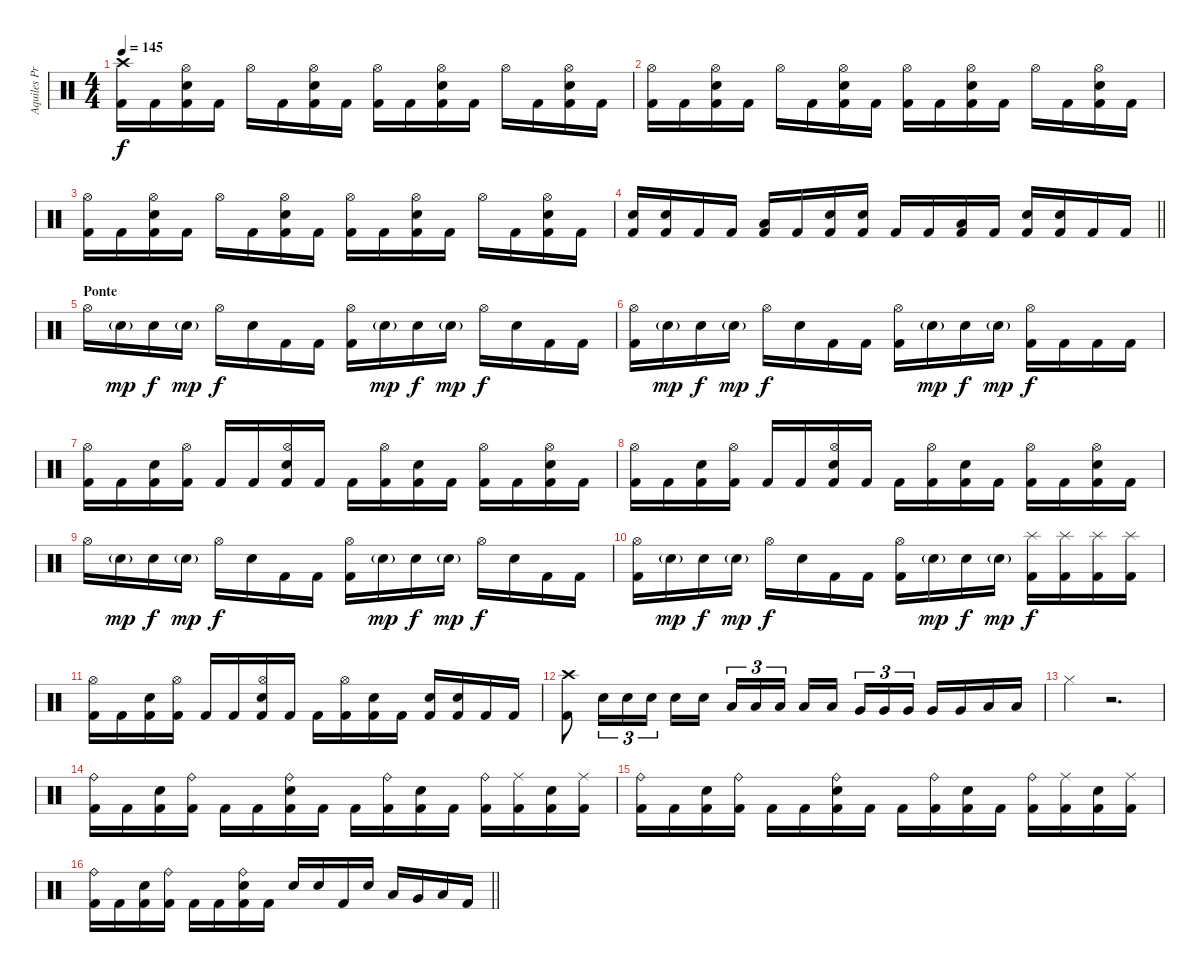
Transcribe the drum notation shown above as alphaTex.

\track ("Aquiles Priester" "Aquiles Pr") {instrument percussion}
\staff {score}
\articulation defaults
\ts (4 4)
\tempo 145
\clef neutral
\ks c
("Crash high (hit)" "Kick (hit) 2").16{dy f} "Kick (hit) 2".16 ("Hi-Hat (open)" "Electric Snare (hit)" "Kick (hit) 2").16 "Kick (hit) 2".16 "Hi-Hat (open)".16 "Kick (hit) 2".16 ("Hi-Hat (open)" "Electric Snare (hit)" "Kick (hit) 2").16 "Kick (hit) 2".16 ("Hi-Hat (open)" "Kick (hit) 2").16 "Kick (hit) 2".16 ("Hi-Hat (open)" "Electric Snare (hit)" "Kick (hit) 2").16 "Kick (hit) 2".16 "Hi-Hat (open)".16 "Kick (hit) 2".16 ("Hi-Hat (open)" "Electric Snare (hit)" "Kick (hit) 2").16 "Kick (hit) 2".16 |
("Hi-Hat (open)" "Kick (hit) 2").16 "Kick (hit) 2".16 ("Hi-Hat (open)" "Electric Snare (hit)" "Kick (hit) 2").16 "Kick (hit) 2".16 "Hi-Hat (open)".16 "Kick (hit) 2".16 ("Hi-Hat (open)" "Electric Snare (hit)" "Kick (hit) 2").16 "Kick (hit) 2".16 ("Hi-Hat (open)" "Kick (hit) 2").16 "Kick (hit) 2".16 ("Hi-Hat (open)" "Electric Snare (hit)" "Kick (hit) 2").16 "Kick (hit) 2".16 "Hi-Hat (open)".16 "Kick (hit) 2".16 ("Hi-Hat (open)" "Electric Snare (hit)" "Kick (hit) 2").16 "Kick (hit) 2".16 |
("Hi-Hat (open)" "Kick (hit) 2").16 "Kick (hit) 2".16 ("Hi-Hat (open)" "Electric Snare (hit)" "Kick (hit) 2").16 "Kick (hit) 2".16 "Hi-Hat (open)".16 "Kick (hit) 2".16 ("Hi-Hat (open)" "Electric Snare (hit)" "Kick (hit) 2").16 "Kick (hit) 2".16 ("Hi-Hat (open)" "Kick (hit) 2").16 "Kick (hit) 2".16 ("Hi-Hat (open)" "Electric Snare (hit)" "Kick (hit) 2").16 "Kick (hit) 2".16 "Hi-Hat (open)".16 "Kick (hit) 2".16 ("Hi-Hat (open)" "Electric Snare (hit)" "Kick (hit) 2").16 "Kick (hit) 2".16 |
\barLineRight lightlight
("Electric Snare (hit)" "Kick (hit) 2").16 ("Electric Snare (hit)" "Kick (hit) 2").16 "Kick (hit) 2".16 "Kick (hit) 2".16 ("Low Tom (hit)" "Kick (hit) 2").16 "Kick (hit) 2".16 ("Electric Snare (hit)" "Kick (hit) 2").16 ("Electric Snare (hit)" "Kick (hit) 2").16 "Kick (hit) 2".16 "Kick (hit) 2".16 ("Low Tom (hit)" "Kick (hit) 2").16 "Kick (hit) 2".16 ("Electric Snare (hit)" "Kick (hit) 2").16 ("Electric Snare (hit)" "Kick (hit) 2").16 "Kick (hit) 2".16 "Kick (hit) 2".16 |
\section ("" "Ponte")
"Hi-Hat (open)".16 "Electric Snare (hit)"{g}.16{dy mp} "Electric Snare (hit)".16{dy f} "Electric Snare (hit)"{g}.16{dy mp} "Hi-Hat (open)".16{dy f} "Electric Snare (hit)".16 "Kick (hit) 2".16 "Kick (hit) 2".16 ("Hi-Hat (open)" "Kick (hit) 2").16 "Electric Snare (hit)"{g}.16{dy mp} "Electric Snare (hit)".16{dy f} "Electric Snare (hit)"{g}.16{dy mp} "Hi-Hat (open)".16{dy f} "Electric Snare (hit)".16 "Kick (hit) 2".16 "Kick (hit) 2".16 |
("Hi-Hat (open)" "Kick (hit) 2").16 "Electric Snare (hit)"{g}.16{dy mp} "Electric Snare (hit)".16{dy f} "Electric Snare (hit)"{g}.16{dy mp} "Hi-Hat (open)".16{dy f} "Electric Snare (hit)".16 "Kick (hit) 2".16 "Kick (hit) 2".16 ("Hi-Hat (open)" "Kick (hit) 2").16 "Electric Snare (hit)"{g}.16{dy mp} "Electric Snare (hit)".16{dy f} "Electric Snare (hit)"{g}.16{dy mp} ("Hi-Hat (open)" "Kick (hit) 2").16{dy f} "Kick (hit) 2".16 "Kick (hit) 2".16 "Kick (hit) 2".16 |
("Hi-Hat (open)" "Kick (hit) 2").16 "Kick (hit) 2".16 ("Electric Snare (hit)" "Kick (hit) 2").16 ("Hi-Hat (open)" "Kick (hit) 2").16 "Kick (hit) 2".16 "Kick (hit) 2".16 ("Hi-Hat (open)" "Electric Snare (hit)" "Kick (hit) 2").16 "Kick (hit) 2".16 "Kick (hit) 2".16 ("Hi-Hat (open)" "Kick (hit) 2").16 ("Electric Snare (hit)" "Kick (hit) 2").16 "Kick (hit) 2".16 ("Hi-Hat (open)" "Kick (hit) 2").16 "Kick (hit) 2".16 ("Hi-Hat (open)" "Electric Snare (hit)" "Kick (hit) 2").16 "Kick (hit) 2".16 |
("Hi-Hat (open)" "Kick (hit) 2").16 "Kick (hit) 2".16 ("Electric Snare (hit)" "Kick (hit) 2").16 ("Hi-Hat (open)" "Kick (hit) 2").16 "Kick (hit) 2".16 "Kick (hit) 2".16 ("Hi-Hat (open)" "Electric Snare (hit)" "Kick (hit) 2").16 "Kick (hit) 2".16 "Kick (hit) 2".16 ("Hi-Hat (open)" "Kick (hit) 2").16 ("Electric Snare (hit)" "Kick (hit) 2").16 "Kick (hit) 2".16 ("Hi-Hat (open)" "Kick (hit) 2").16 "Kick (hit) 2".16 ("Hi-Hat (open)" "Electric Snare (hit)" "Kick (hit) 2").16 "Kick (hit) 2".16 |
"Hi-Hat (open)".16 "Electric Snare (hit)"{g}.16{dy mp} "Electric Snare (hit)".16{dy f} "Electric Snare (hit)"{g}.16{dy mp} "Hi-Hat (open)".16{dy f} "Electric Snare (hit)".16 "Kick (hit) 2".16 "Kick (hit) 2".16 ("Hi-Hat (open)" "Kick (hit) 2").16 "Electric Snare (hit)"{g}.16{dy mp} "Electric Snare (hit)".16{dy f} "Electric Snare (hit)"{g}.16{dy mp} "Hi-Hat (open)".16{dy f} "Electric Snare (hit)".16 "Kick (hit) 2".16 "Kick (hit) 2".16 |
("Hi-Hat (open)" "Kick (hit) 2").16 "Electric Snare (hit)"{g}.16{dy mp} "Electric Snare (hit)".16{dy f} "Electric Snare (hit)"{g}.16{dy mp} "Hi-Hat (open)".16{dy f} "Electric Snare (hit)".16 "Kick (hit) 2".16 "Kick (hit) 2".16 ("Hi-Hat (open)" "Kick (hit) 2").16 "Electric Snare (hit)"{g}.16{dy mp} "Electric Snare (hit)".16{dy f} "Electric Snare (hit)"{g}.16{dy mp} ("Splash (hit)" "Kick (hit) 2").16{dy f} ("Splash (hit)" "Kick (hit) 2").16 ("Splash (hit)" "Kick (hit) 2").16 ("Splash (hit)" "Kick (hit) 2").16 |
("Hi-Hat (open)" "Kick (hit) 2").16 "Kick (hit) 2".16 ("Electric Snare (hit)" "Kick (hit) 2").16 ("Hi-Hat (open)" "Kick (hit) 2").16 "Kick (hit) 2".16 "Kick (hit) 2".16 ("Hi-Hat (open)" "Electric Snare (hit)" "Kick (hit) 2").16 "Kick (hit) 2".16 "Kick (hit) 2".16 ("Hi-Hat (open)" "Kick (hit) 2").16 ("Electric Snare (hit)" "Kick (hit) 2").16 "Kick (hit) 2".16 ("Electric Snare (hit)" "Kick (hit) 2").16 ("Electric Snare (hit)" "Kick (hit) 2").16 "Kick (hit) 2".16 "Kick (hit) 2".16 |
("Crash high (hit)" "Kick (hit) 2").8 "Electric Snare (hit)".16{tu (3 2)} "Electric Snare (hit)".16{tu (3 2)} "Electric Snare (hit)".16{tu (3 2)} "Electric Snare (hit)".16 "Electric Snare (hit)".16{beam splitsecondary} "Low Tom (hit)".16{tu (3 2)} "Low Tom (hit)".16{tu (3 2)} "Low Tom (hit)".16{tu (3 2)} "Low Tom (hit)".16 "Low Tom (hit)".16{beam splitsecondary} "Very Low Tom (hit)".16{tu (3 2)} "Very Low Tom (hit)".16{tu (3 2)} "Very Low Tom (hit)".16{tu (3 2)} "Very Low Tom (hit)".16 "Very Low Tom (hit)".16 "Low Floor Tom (hit)".16 "Low Floor Tom (hit)".16 |
"Hi-Hat (closed)".4 r.2{d} |
("Ride (bell)" "Kick (hit) 2").16 "Kick (hit) 2".16 ("Electric Snare (hit)" "Kick (hit) 2").16 ("Ride (bell)" "Kick (hit) 2").16 "Kick (hit) 2".16 "Kick (hit) 2".16 ("Ride (bell)" "Electric Snare (hit)" "Kick (hit) 2").16 "Kick (hit) 2".16 "Kick (hit) 2".16 ("Ride (bell)" "Kick (hit) 2").16 ("Electric Snare (hit)" "Kick (hit) 2").16 "Kick (hit) 2".16 ("Ride (bell)" "Kick (hit) 2").16 ("Ride (middle)" "Kick (hit) 2").16 ("Electric Snare (hit)" "Kick (hit) 2").16 ("Ride (middle)" "Kick (hit) 2").16 |
("Ride (bell)" "Kick (hit) 2").16 "Kick (hit) 2".16 ("Electric Snare (hit)" "Kick (hit) 2").16 ("Ride (bell)" "Kick (hit) 2").16 "Kick (hit) 2".16 "Kick (hit) 2".16 ("Ride (bell)" "Electric Snare (hit)" "Kick (hit) 2").16 "Kick (hit) 2".16 "Kick (hit) 2".16 ("Ride (bell)" "Kick (hit) 2").16 ("Electric Snare (hit)" "Kick (hit) 2").16 "Kick (hit) 2".16 ("Ride (bell)" "Kick (hit) 2").16 ("Ride (middle)" "Kick (hit) 2").16 ("Electric Snare (hit)" "Kick (hit) 2").16 ("Ride (middle)" "Kick (hit) 2").16 |
\barLineRight lightlight
("Ride (bell)" "Kick (hit) 2").16 "Kick (hit) 2".16 ("Electric Snare (hit)" "Kick (hit) 2").16 ("Ride (bell)" "Kick (hit) 2").16 "Kick (hit) 2".16 "Kick (hit) 2".16 ("Ride (bell)" "Electric Snare (hit)" "Kick (hit) 2").16 "Kick (hit) 2".16 "Electric Snare (hit)".16 "Electric Snare (hit)".16 "Kick (hit) 2".16 "Electric Snare (hit)".16 "Low Tom (hit)".16 "Very Low Tom (hit)".16 "Low Floor Tom (hit)".16 "Kick (hit) 2".16
